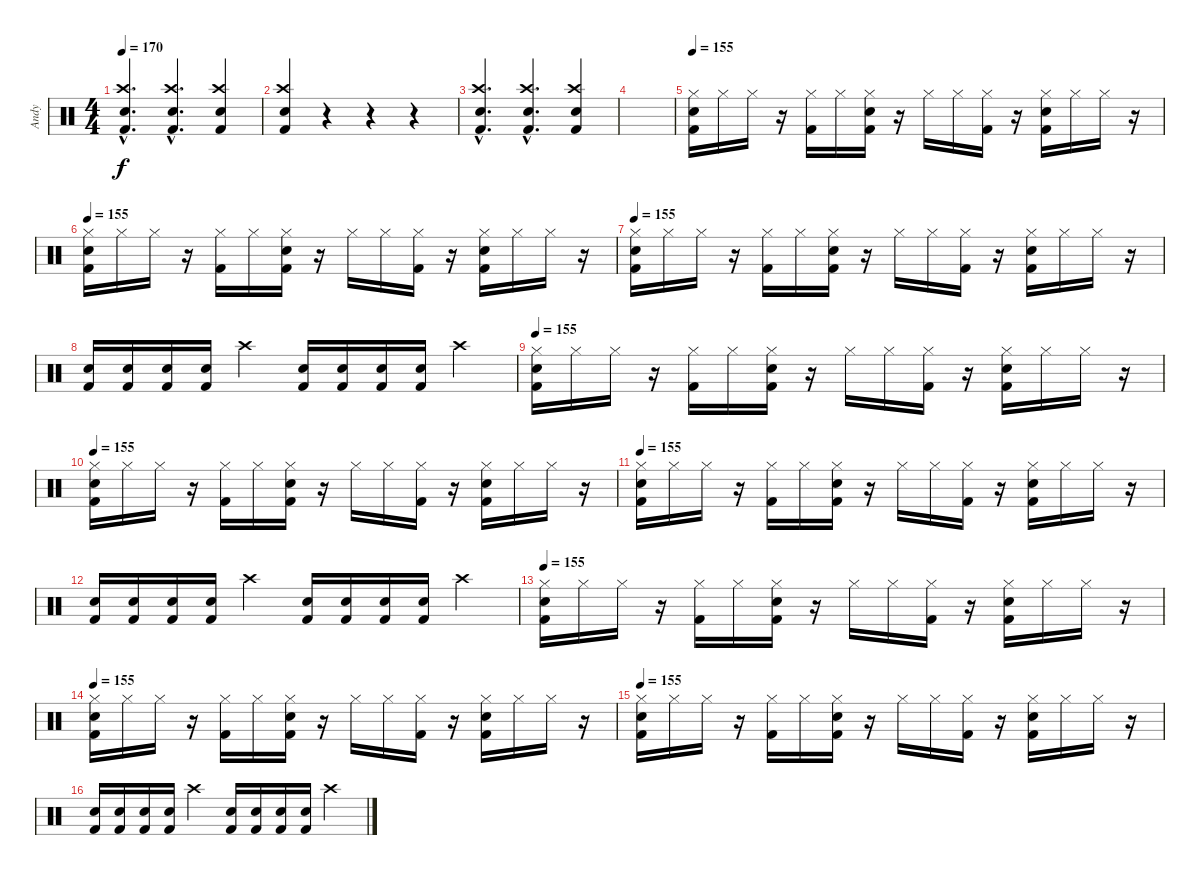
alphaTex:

\track ("Andy" "Andy") {instrument percussion}
\staff {score}
\articulation defaults
\ts (4 4)
\tempo 170
\clef neutral
\ks c
("Electric Snare (hit)"{hac} "Crash high (hit)"{hac} "Kick (hit) 2"{hac}).4{d dy f} ("Electric Snare (hit)"{hac} "Crash high (hit)"{hac} "Kick (hit) 2"{hac}).4{d} ("Electric Snare (hit)" "Crash high (hit)" "Kick (hit) 2").4 |
("Electric Snare (hit)" "Crash high (hit)" "Kick (hit) 2").4 r.4 r.4 r.4 |
("Electric Snare (hit)"{hac} "Crash high (hit)"{hac} "Kick (hit) 2"{hac}).4{d} ("Electric Snare (hit)"{hac} "Crash high (hit)"{hac} "Kick (hit) 2"{hac}).4{d} ("Electric Snare (hit)" "Crash high (hit)" "Kick (hit) 2").4 |
|
\tempo 155
("Hi-Hat (closed)" "Electric Snare (hit)" "Kick (hit) 2").16 "Hi-Hat (closed)".16 "Hi-Hat (closed)".16 r.16 ("Hi-Hat (closed)" "Kick (hit) 2").16 "Hi-Hat (closed)".16 ("Hi-Hat (closed)" "Electric Snare (hit)" "Kick (hit) 2").16 r.16 "Hi-Hat (closed)".16 "Hi-Hat (closed)".16 ("Hi-Hat (closed)" "Kick (hit) 2").16 r.16 ("Hi-Hat (closed)" "Electric Snare (hit)" "Kick (hit) 2").16 "Hi-Hat (closed)".16 "Hi-Hat (closed)".16 r.16 |
\tempo 155
("Hi-Hat (closed)" "Electric Snare (hit)" "Kick (hit) 2").16 "Hi-Hat (closed)".16 "Hi-Hat (closed)".16 r.16 ("Hi-Hat (closed)" "Kick (hit) 2").16 "Hi-Hat (closed)".16 ("Hi-Hat (closed)" "Electric Snare (hit)" "Kick (hit) 2").16 r.16 "Hi-Hat (closed)".16 "Hi-Hat (closed)".16 ("Hi-Hat (closed)" "Kick (hit) 2").16 r.16 ("Hi-Hat (closed)" "Electric Snare (hit)" "Kick (hit) 2").16 "Hi-Hat (closed)".16 "Hi-Hat (closed)".16 r.16 |
\tempo 155
("Hi-Hat (closed)" "Electric Snare (hit)" "Kick (hit) 2").16 "Hi-Hat (closed)".16 "Hi-Hat (closed)".16 r.16 ("Hi-Hat (closed)" "Kick (hit) 2").16 "Hi-Hat (closed)".16 ("Hi-Hat (closed)" "Electric Snare (hit)" "Kick (hit) 2").16 r.16 "Hi-Hat (closed)".16 "Hi-Hat (closed)".16 ("Hi-Hat (closed)" "Kick (hit) 2").16 r.16 ("Hi-Hat (closed)" "Electric Snare (hit)" "Kick (hit) 2").16 "Hi-Hat (closed)".16 "Hi-Hat (closed)".16 r.16 |
("Electric Snare (hit)" "Kick (hit) 2").16 ("Electric Snare (hit)" "Kick (hit) 2").16 ("Electric Snare (hit)" "Kick (hit) 2").16 ("Electric Snare (hit)" "Kick (hit) 2").16 "Crash high (hit)".4 ("Electric Snare (hit)" "Kick (hit) 2").16 ("Electric Snare (hit)" "Kick (hit) 2").16 ("Electric Snare (hit)" "Kick (hit) 2").16 ("Electric Snare (hit)" "Kick (hit) 2").16 "Crash high (hit)".4 |
\tempo 155
("Hi-Hat (closed)" "Electric Snare (hit)" "Kick (hit) 2").16 "Hi-Hat (closed)".16 "Hi-Hat (closed)".16 r.16 ("Hi-Hat (closed)" "Kick (hit) 2").16 "Hi-Hat (closed)".16 ("Hi-Hat (closed)" "Electric Snare (hit)" "Kick (hit) 2").16 r.16 "Hi-Hat (closed)".16 "Hi-Hat (closed)".16 ("Hi-Hat (closed)" "Kick (hit) 2").16 r.16 ("Hi-Hat (closed)" "Electric Snare (hit)" "Kick (hit) 2").16 "Hi-Hat (closed)".16 "Hi-Hat (closed)".16 r.16 |
\tempo 155
("Hi-Hat (closed)" "Electric Snare (hit)" "Kick (hit) 2").16 "Hi-Hat (closed)".16 "Hi-Hat (closed)".16 r.16 ("Hi-Hat (closed)" "Kick (hit) 2").16 "Hi-Hat (closed)".16 ("Hi-Hat (closed)" "Electric Snare (hit)" "Kick (hit) 2").16 r.16 "Hi-Hat (closed)".16 "Hi-Hat (closed)".16 ("Hi-Hat (closed)" "Kick (hit) 2").16 r.16 ("Hi-Hat (closed)" "Electric Snare (hit)" "Kick (hit) 2").16 "Hi-Hat (closed)".16 "Hi-Hat (closed)".16 r.16 |
\tempo 155
("Hi-Hat (closed)" "Electric Snare (hit)" "Kick (hit) 2").16 "Hi-Hat (closed)".16 "Hi-Hat (closed)".16 r.16 ("Hi-Hat (closed)" "Kick (hit) 2").16 "Hi-Hat (closed)".16 ("Hi-Hat (closed)" "Electric Snare (hit)" "Kick (hit) 2").16 r.16 "Hi-Hat (closed)".16 "Hi-Hat (closed)".16 ("Hi-Hat (closed)" "Kick (hit) 2").16 r.16 ("Hi-Hat (closed)" "Electric Snare (hit)" "Kick (hit) 2").16 "Hi-Hat (closed)".16 "Hi-Hat (closed)".16 r.16 |
("Electric Snare (hit)" "Kick (hit) 2").16 ("Electric Snare (hit)" "Kick (hit) 2").16 ("Electric Snare (hit)" "Kick (hit) 2").16 ("Electric Snare (hit)" "Kick (hit) 2").16 "Crash high (hit)".4 ("Electric Snare (hit)" "Kick (hit) 2").16 ("Electric Snare (hit)" "Kick (hit) 2").16 ("Electric Snare (hit)" "Kick (hit) 2").16 ("Electric Snare (hit)" "Kick (hit) 2").16 "Crash high (hit)".4 |
\tempo 155
("Hi-Hat (closed)" "Electric Snare (hit)" "Kick (hit) 2").16 "Hi-Hat (closed)".16 "Hi-Hat (closed)".16 r.16 ("Hi-Hat (closed)" "Kick (hit) 2").16 "Hi-Hat (closed)".16 ("Hi-Hat (closed)" "Electric Snare (hit)" "Kick (hit) 2").16 r.16 "Hi-Hat (closed)".16 "Hi-Hat (closed)".16 ("Hi-Hat (closed)" "Kick (hit) 2").16 r.16 ("Hi-Hat (closed)" "Electric Snare (hit)" "Kick (hit) 2").16 "Hi-Hat (closed)".16 "Hi-Hat (closed)".16 r.16 |
\tempo 155
("Hi-Hat (closed)" "Electric Snare (hit)" "Kick (hit) 2").16 "Hi-Hat (closed)".16 "Hi-Hat (closed)".16 r.16 ("Hi-Hat (closed)" "Kick (hit) 2").16 "Hi-Hat (closed)".16 ("Hi-Hat (closed)" "Electric Snare (hit)" "Kick (hit) 2").16 r.16 "Hi-Hat (closed)".16 "Hi-Hat (closed)".16 ("Hi-Hat (closed)" "Kick (hit) 2").16 r.16 ("Hi-Hat (closed)" "Electric Snare (hit)" "Kick (hit) 2").16 "Hi-Hat (closed)".16 "Hi-Hat (closed)".16 r.16 |
\tempo 155
("Hi-Hat (closed)" "Electric Snare (hit)" "Kick (hit) 2").16 "Hi-Hat (closed)".16 "Hi-Hat (closed)".16 r.16 ("Hi-Hat (closed)" "Kick (hit) 2").16 "Hi-Hat (closed)".16 ("Hi-Hat (closed)" "Electric Snare (hit)" "Kick (hit) 2").16 r.16 "Hi-Hat (closed)".16 "Hi-Hat (closed)".16 ("Hi-Hat (closed)" "Kick (hit) 2").16 r.16 ("Hi-Hat (closed)" "Electric Snare (hit)" "Kick (hit) 2").16 "Hi-Hat (closed)".16 "Hi-Hat (closed)".16 r.16 |
("Electric Snare (hit)" "Kick (hit) 2").16 ("Electric Snare (hit)" "Kick (hit) 2").16 ("Electric Snare (hit)" "Kick (hit) 2").16 ("Electric Snare (hit)" "Kick (hit) 2").16 "Crash high (hit)".4 ("Electric Snare (hit)" "Kick (hit) 2").16 ("Electric Snare (hit)" "Kick (hit) 2").16 ("Electric Snare (hit)" "Kick (hit) 2").16 ("Electric Snare (hit)" "Kick (hit) 2").16 "Crash high (hit)".4
